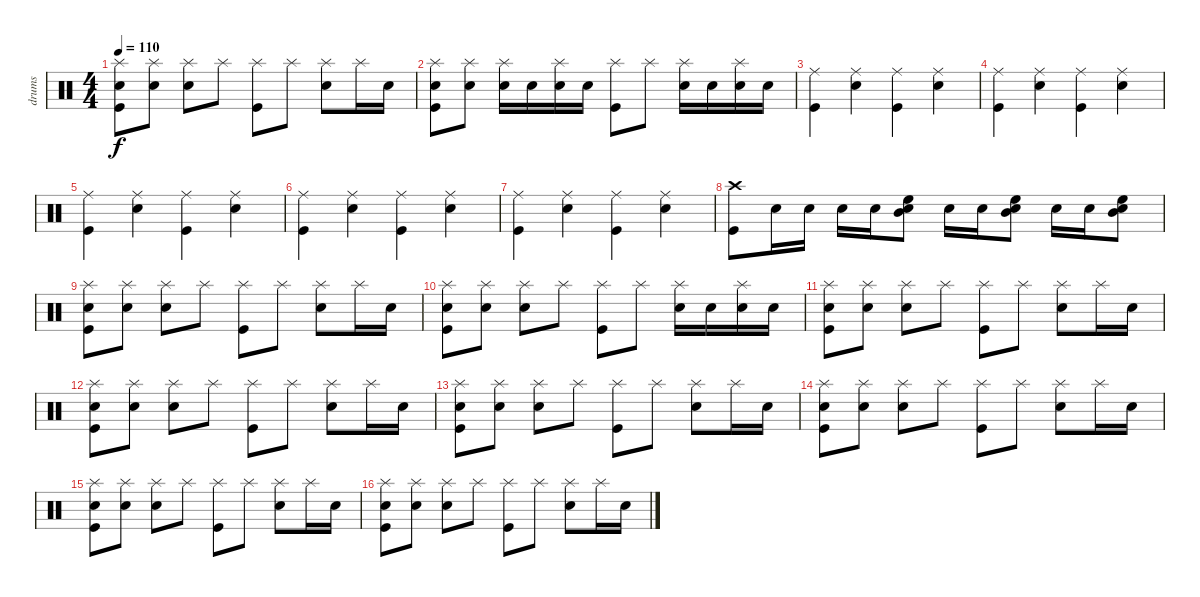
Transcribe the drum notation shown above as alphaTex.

\track ("drums" "drums") {instrument percussion}
\staff {score}
\articulation defaults
\ts (4 4)
\tempo 110
\clef neutral
\ks c
("Splash (hit)" "Snare (hit) 2" "Kick (hit)").8{dy f} ("Splash (hit)" "Snare (hit) 2").8 ("Splash (hit)" "Snare (hit) 2").8 "Splash (hit)".8 ("Splash (hit)" "Kick (hit)").8 "Splash (hit)".8 ("Splash (hit)" "Snare (hit) 2").8 "Splash (hit)".16 "Snare (hit) 2".16 |
("Splash (hit)" "Snare (hit) 2" "Kick (hit)").8 ("Splash (hit)" "Snare (hit) 2").8 ("Splash (hit)" "Snare (hit) 2").16 "Snare (hit) 2".16 ("Splash (hit)" "Snare (hit) 2").16 "Snare (hit) 2".16 ("Splash (hit)" "Kick (hit)").8 "Splash (hit)".8 ("Splash (hit)" "Snare (hit) 2").16 "Snare (hit) 2".16 ("Splash (hit)" "Snare (hit) 2").16 "Snare (hit) 2".16 |
("Ride (middle)" "Kick (hit)").4 ("Ride (middle)" "Snare (hit) 2").4 ("Ride (middle)" "Kick (hit)").4 ("Ride (middle)" "Snare (hit) 2").4 |
("Ride (middle)" "Kick (hit)").4 ("Ride (middle)" "Snare (hit) 2").4 ("Ride (middle)" "Kick (hit)").4 ("Ride (middle)" "Snare (hit) 2").4 |
("Ride (middle)" "Kick (hit)").4 ("Ride (middle)" "Snare (hit) 2").4 ("Ride (middle)" "Kick (hit)").4 ("Ride (middle)" "Snare (hit) 2").4 |
("Ride (middle)" "Kick (hit)").4 ("Ride (middle)" "Snare (hit) 2").4 ("Ride (middle)" "Kick (hit)").4 ("Ride (middle)" "Snare (hit) 2").4 |
("Ride (middle)" "Kick (hit)").4 ("Ride (middle)" "Snare (hit) 2").4 ("Ride (middle)" "Kick (hit)").4 ("Ride (middle)" "Snare (hit) 2").4 |
("Crash high (hit)" "Kick (hit)").8 "Snare (hit) 2".16 "Snare (hit) 2".16 "Snare (hit) 2".16 "Snare (hit) 2".16 ("High Floor Tom (hit)" "Snare (hit) 2" "Mid Tom (hit)").8 "Snare (hit) 2".16 "Snare (hit) 2".16 ("High Floor Tom (hit)" "Snare (hit) 2" "Mid Tom (hit)").8 "Snare (hit) 2".16 "Snare (hit) 2".16 ("High Floor Tom (hit)" "Snare (hit) 2" "Mid Tom (hit)").8 |
("Splash (hit)" "Snare (hit) 2" "Kick (hit)").8 ("Splash (hit)" "Snare (hit) 2").8 ("Splash (hit)" "Snare (hit) 2").8 "Splash (hit)".8 ("Splash (hit)" "Kick (hit)").8 "Splash (hit)".8 ("Splash (hit)" "Snare (hit) 2").8 "Splash (hit)".16 "Snare (hit) 2".16 |
("Splash (hit)" "Snare (hit) 2" "Kick (hit)").8 ("Splash (hit)" "Snare (hit) 2").8 ("Splash (hit)" "Snare (hit) 2").8 "Splash (hit)".8 ("Splash (hit)" "Kick (hit)").8 "Splash (hit)".8 ("Splash (hit)" "Snare (hit) 2").16 "Snare (hit) 2".16 ("Splash (hit)" "Snare (hit) 2").16 "Snare (hit) 2".16 |
("Splash (hit)" "Snare (hit) 2" "Kick (hit)").8 ("Splash (hit)" "Snare (hit) 2").8 ("Splash (hit)" "Snare (hit) 2").8 "Splash (hit)".8 ("Splash (hit)" "Kick (hit)").8 "Splash (hit)".8 ("Splash (hit)" "Snare (hit) 2").8 "Splash (hit)".16 "Snare (hit) 2".16 |
("Splash (hit)" "Snare (hit) 2" "Kick (hit)").8 ("Splash (hit)" "Snare (hit) 2").8 ("Splash (hit)" "Snare (hit) 2").8 "Splash (hit)".8 ("Splash (hit)" "Kick (hit)").8 "Splash (hit)".8 ("Splash (hit)" "Snare (hit) 2").8 "Splash (hit)".16 "Snare (hit) 2".16 |
("Splash (hit)" "Snare (hit) 2" "Kick (hit)").8 ("Splash (hit)" "Snare (hit) 2").8 ("Splash (hit)" "Snare (hit) 2").8 "Splash (hit)".8 ("Splash (hit)" "Kick (hit)").8 "Splash (hit)".8 ("Splash (hit)" "Snare (hit) 2").8 "Splash (hit)".16 "Snare (hit) 2".16 |
("Splash (hit)" "Snare (hit) 2" "Kick (hit)").8 ("Splash (hit)" "Snare (hit) 2").8 ("Splash (hit)" "Snare (hit) 2").8 "Splash (hit)".8 ("Splash (hit)" "Kick (hit)").8 "Splash (hit)".8 ("Splash (hit)" "Snare (hit) 2").8 "Splash (hit)".16 "Snare (hit) 2".16 |
("Splash (hit)" "Snare (hit) 2" "Kick (hit)").8 ("Splash (hit)" "Snare (hit) 2").8 ("Splash (hit)" "Snare (hit) 2").8 "Splash (hit)".8 ("Splash (hit)" "Kick (hit)").8 "Splash (hit)".8 ("Splash (hit)" "Snare (hit) 2").8 "Splash (hit)".16 "Snare (hit) 2".16 |
("Splash (hit)" "Snare (hit) 2" "Kick (hit)").8 ("Splash (hit)" "Snare (hit) 2").8 ("Splash (hit)" "Snare (hit) 2").8 "Splash (hit)".8 ("Splash (hit)" "Kick (hit)").8 "Splash (hit)".8 ("Splash (hit)" "Snare (hit) 2").8 "Splash (hit)".16 "Snare (hit) 2".16
